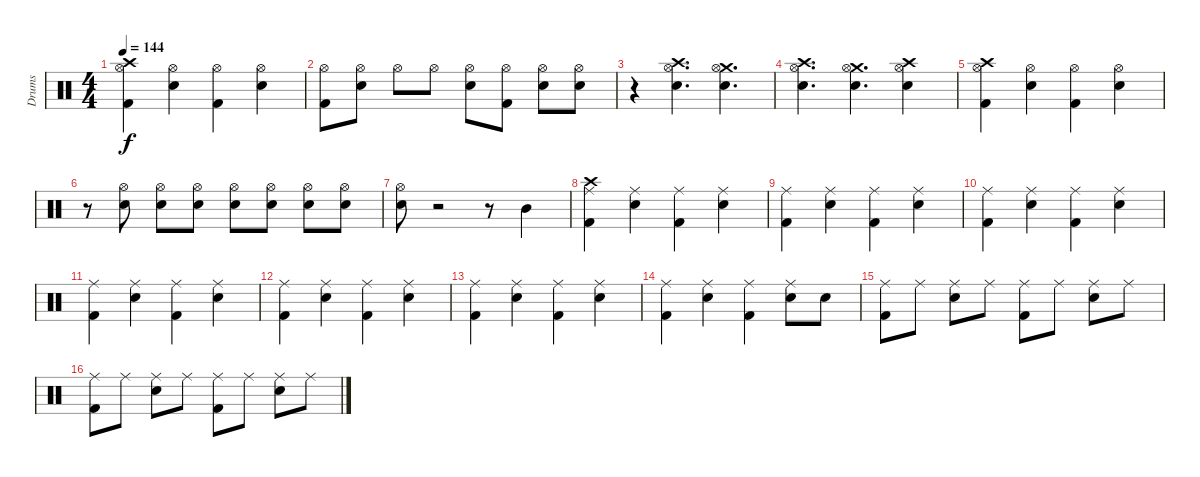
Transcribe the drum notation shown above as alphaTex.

\track ("Drums" "Drums") {instrument percussion}
\staff {score}
\articulation defaults
\ts (4 4)
\tempo 144
\clef neutral
\ks c
("Crash high (hit)" "Hi-Hat (open)" "Kick (hit) 2").4{dy f} ("Hi-Hat (open)" "Electric Snare (hit)").4 ("Hi-Hat (open)" "Kick (hit) 2").4 ("Hi-Hat (open)" "Electric Snare (hit)").4 |
("Hi-Hat (open)" "Kick (hit) 2").8 ("Hi-Hat (open)" "Electric Snare (hit)").8 "Hi-Hat (open)".8 "Hi-Hat (open)".8 ("Hi-Hat (open)" "Electric Snare (hit)").8 ("Hi-Hat (open)" "Kick (hit) 2").8 ("Hi-Hat (open)" "Electric Snare (hit)").8 ("Hi-Hat (open)" "Electric Snare (hit)").8 |
r.4 ("Crash high (hit)" "Hi-Hat (open)" "Electric Snare (hit)").4{d} ("Crash medium (hit)" "Hi-Hat (open)" "Electric Snare (hit)").4{d} |
("Crash high (hit)" "Hi-Hat (open)" "Electric Snare (hit)").4{d} ("Crash medium (hit)" "Hi-Hat (open)" "Electric Snare (hit)").4{d} ("Crash high (hit)" "Hi-Hat (open)" "Electric Snare (hit)").4 |
("Crash high (hit)" "Hi-Hat (open)" "Kick (hit) 2").4 ("Hi-Hat (open)" "Electric Snare (hit)").4 ("Hi-Hat (open)" "Kick (hit) 2").4 ("Hi-Hat (open)" "Electric Snare (hit)").4 |
r.8 ("Hi-Hat (open)" "Electric Snare (hit)").8 ("Hi-Hat (open)" "Electric Snare (hit)").8 ("Hi-Hat (open)" "Electric Snare (hit)").8 ("Hi-Hat (open)" "Electric Snare (hit)").8 ("Hi-Hat (open)" "Electric Snare (hit)").8 ("Hi-Hat (open)" "Electric Snare (hit)").8 ("Hi-Hat (open)" "Electric Snare (hit)").8 |
("Hi-Hat (open)" "Electric Snare (hit)").8 r.2 r.8 "Mid Tom (hit)".4 |
("Crash high (hit)" "Ride (middle)" "Kick (hit) 2").4 ("Ride (middle)" "Electric Snare (hit)").4 ("Ride (middle)" "Kick (hit) 2").4 ("Ride (middle)" "Electric Snare (hit)").4 |
("Ride (middle)" "Kick (hit) 2").4 ("Ride (middle)" "Electric Snare (hit)").4 ("Ride (middle)" "Kick (hit) 2").4 ("Ride (middle)" "Electric Snare (hit)").4 |
("Ride (middle)" "Kick (hit) 2").4 ("Ride (middle)" "Electric Snare (hit)").4 ("Ride (middle)" "Kick (hit) 2").4 ("Ride (middle)" "Electric Snare (hit)").4 |
("Ride (middle)" "Kick (hit) 2").4 ("Ride (middle)" "Electric Snare (hit)").4 ("Ride (middle)" "Kick (hit) 2").4 ("Ride (middle)" "Electric Snare (hit)").4 |
("Ride (middle)" "Kick (hit) 2").4 ("Ride (middle)" "Electric Snare (hit)").4 ("Ride (middle)" "Kick (hit) 2").4 ("Ride (middle)" "Electric Snare (hit)").4 |
("Ride (middle)" "Kick (hit) 2").4 ("Ride (middle)" "Electric Snare (hit)").4 ("Ride (middle)" "Kick (hit) 2").4 ("Ride (middle)" "Electric Snare (hit)").4 |
("Ride (middle)" "Kick (hit) 2").4 ("Ride (middle)" "Electric Snare (hit)").4 ("Ride (middle)" "Kick (hit) 2").4 ("Ride (middle)" "Electric Snare (hit)").8 "Electric Snare (hit)".8 |
("Ride (middle)" "Kick (hit) 2").8 "Ride (middle)".8 ("Ride (middle)" "Electric Snare (hit)").8 "Ride (middle)".8 ("Ride (middle)" "Kick (hit) 2").8 "Ride (middle)".8 ("Ride (middle)" "Electric Snare (hit)").8 "Ride (middle)".8 |
("Ride (middle)" "Kick (hit) 2").8 "Ride (middle)".8 ("Ride (middle)" "Electric Snare (hit)").8 "Ride (middle)".8 ("Ride (middle)" "Kick (hit) 2").8 "Ride (middle)".8 ("Ride (middle)" "Electric Snare (hit)").8 "Ride (middle)".8
